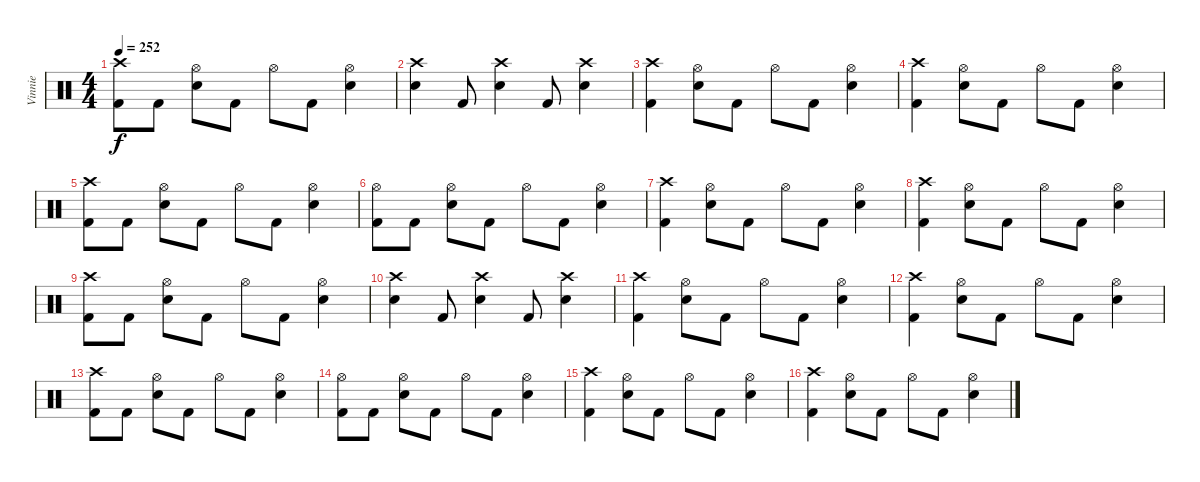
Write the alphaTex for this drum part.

\track ("Vinnie" "Vinnie") {instrument percussion}
\staff {score}
\articulation defaults
\ts (4 4)
\tempo 252
\clef neutral
\ks c
("Crash high (hit)" "Kick (hit) 2").8{dy f} "Kick (hit) 2".8 ("Hi-Hat (open)" "Snare (hit) 2").8 "Kick (hit) 2".8 "Hi-Hat (open)".8 "Kick (hit) 2".8 ("Hi-Hat (open)" "Snare (hit) 2").4 |
("Crash high (hit)" "Snare (hit) 2").4 "Kick (hit) 2".8 ("Crash high (hit)" "Snare (hit) 2").4 "Kick (hit) 2".8 ("Crash high (hit)" "Snare (hit) 2").4 |
("Crash high (hit)" "Kick (hit) 2").4 ("Hi-Hat (open)" "Snare (hit) 2").8 "Kick (hit) 2".8 "Hi-Hat (open)".8 "Kick (hit) 2".8 ("Hi-Hat (open)" "Snare (hit) 2").4 |
("Crash high (hit)" "Kick (hit) 2").4 ("Hi-Hat (open)" "Snare (hit) 2").8 "Kick (hit) 2".8 "Hi-Hat (open)".8 "Kick (hit) 2".8 ("Hi-Hat (open)" "Snare (hit) 2").4 |
("Crash high (hit)" "Kick (hit) 2").8 "Kick (hit) 2".8 ("Hi-Hat (open)" "Snare (hit) 2").8 "Kick (hit) 2".8 "Hi-Hat (open)".8 "Kick (hit) 2".8 ("Hi-Hat (open)" "Snare (hit) 2").4 |
("Hi-Hat (open)" "Kick (hit) 2").8 "Kick (hit) 2".8 ("Hi-Hat (open)" "Snare (hit) 2").8 "Kick (hit) 2".8 "Hi-Hat (open)".8 "Kick (hit) 2".8 ("Hi-Hat (open)" "Snare (hit) 2").4 |
("Crash high (hit)" "Kick (hit) 2").4 ("Hi-Hat (open)" "Snare (hit) 2").8 "Kick (hit) 2".8 "Hi-Hat (open)".8 "Kick (hit) 2".8 ("Hi-Hat (open)" "Snare (hit) 2").4 |
("Crash high (hit)" "Kick (hit) 2").4 ("Hi-Hat (open)" "Snare (hit) 2").8 "Kick (hit) 2".8 "Hi-Hat (open)".8 "Kick (hit) 2".8 ("Hi-Hat (open)" "Snare (hit) 2").4 |
("Crash high (hit)" "Kick (hit) 2").8 "Kick (hit) 2".8 ("Hi-Hat (open)" "Snare (hit) 2").8 "Kick (hit) 2".8 "Hi-Hat (open)".8 "Kick (hit) 2".8 ("Hi-Hat (open)" "Snare (hit) 2").4 |
("Crash high (hit)" "Snare (hit) 2").4 "Kick (hit) 2".8 ("Crash high (hit)" "Snare (hit) 2").4 "Kick (hit) 2".8 ("Crash high (hit)" "Snare (hit) 2").4 |
("Crash high (hit)" "Kick (hit) 2").4 ("Hi-Hat (open)" "Snare (hit) 2").8 "Kick (hit) 2".8 "Hi-Hat (open)".8 "Kick (hit) 2".8 ("Hi-Hat (open)" "Snare (hit) 2").4 |
("Crash high (hit)" "Kick (hit) 2").4 ("Hi-Hat (open)" "Snare (hit) 2").8 "Kick (hit) 2".8 "Hi-Hat (open)".8 "Kick (hit) 2".8 ("Hi-Hat (open)" "Snare (hit) 2").4 |
("Crash high (hit)" "Kick (hit) 2").8 "Kick (hit) 2".8 ("Hi-Hat (open)" "Snare (hit) 2").8 "Kick (hit) 2".8 "Hi-Hat (open)".8 "Kick (hit) 2".8 ("Hi-Hat (open)" "Snare (hit) 2").4 |
("Hi-Hat (open)" "Kick (hit) 2").8 "Kick (hit) 2".8 ("Hi-Hat (open)" "Snare (hit) 2").8 "Kick (hit) 2".8 "Hi-Hat (open)".8 "Kick (hit) 2".8 ("Hi-Hat (open)" "Snare (hit) 2").4 |
("Crash high (hit)" "Kick (hit) 2").4 ("Hi-Hat (open)" "Snare (hit) 2").8 "Kick (hit) 2".8 "Hi-Hat (open)".8 "Kick (hit) 2".8 ("Hi-Hat (open)" "Snare (hit) 2").4 |
("Crash high (hit)" "Kick (hit) 2").4 ("Hi-Hat (open)" "Snare (hit) 2").8 "Kick (hit) 2".8 "Hi-Hat (open)".8 "Kick (hit) 2".8 ("Hi-Hat (open)" "Snare (hit) 2").4
